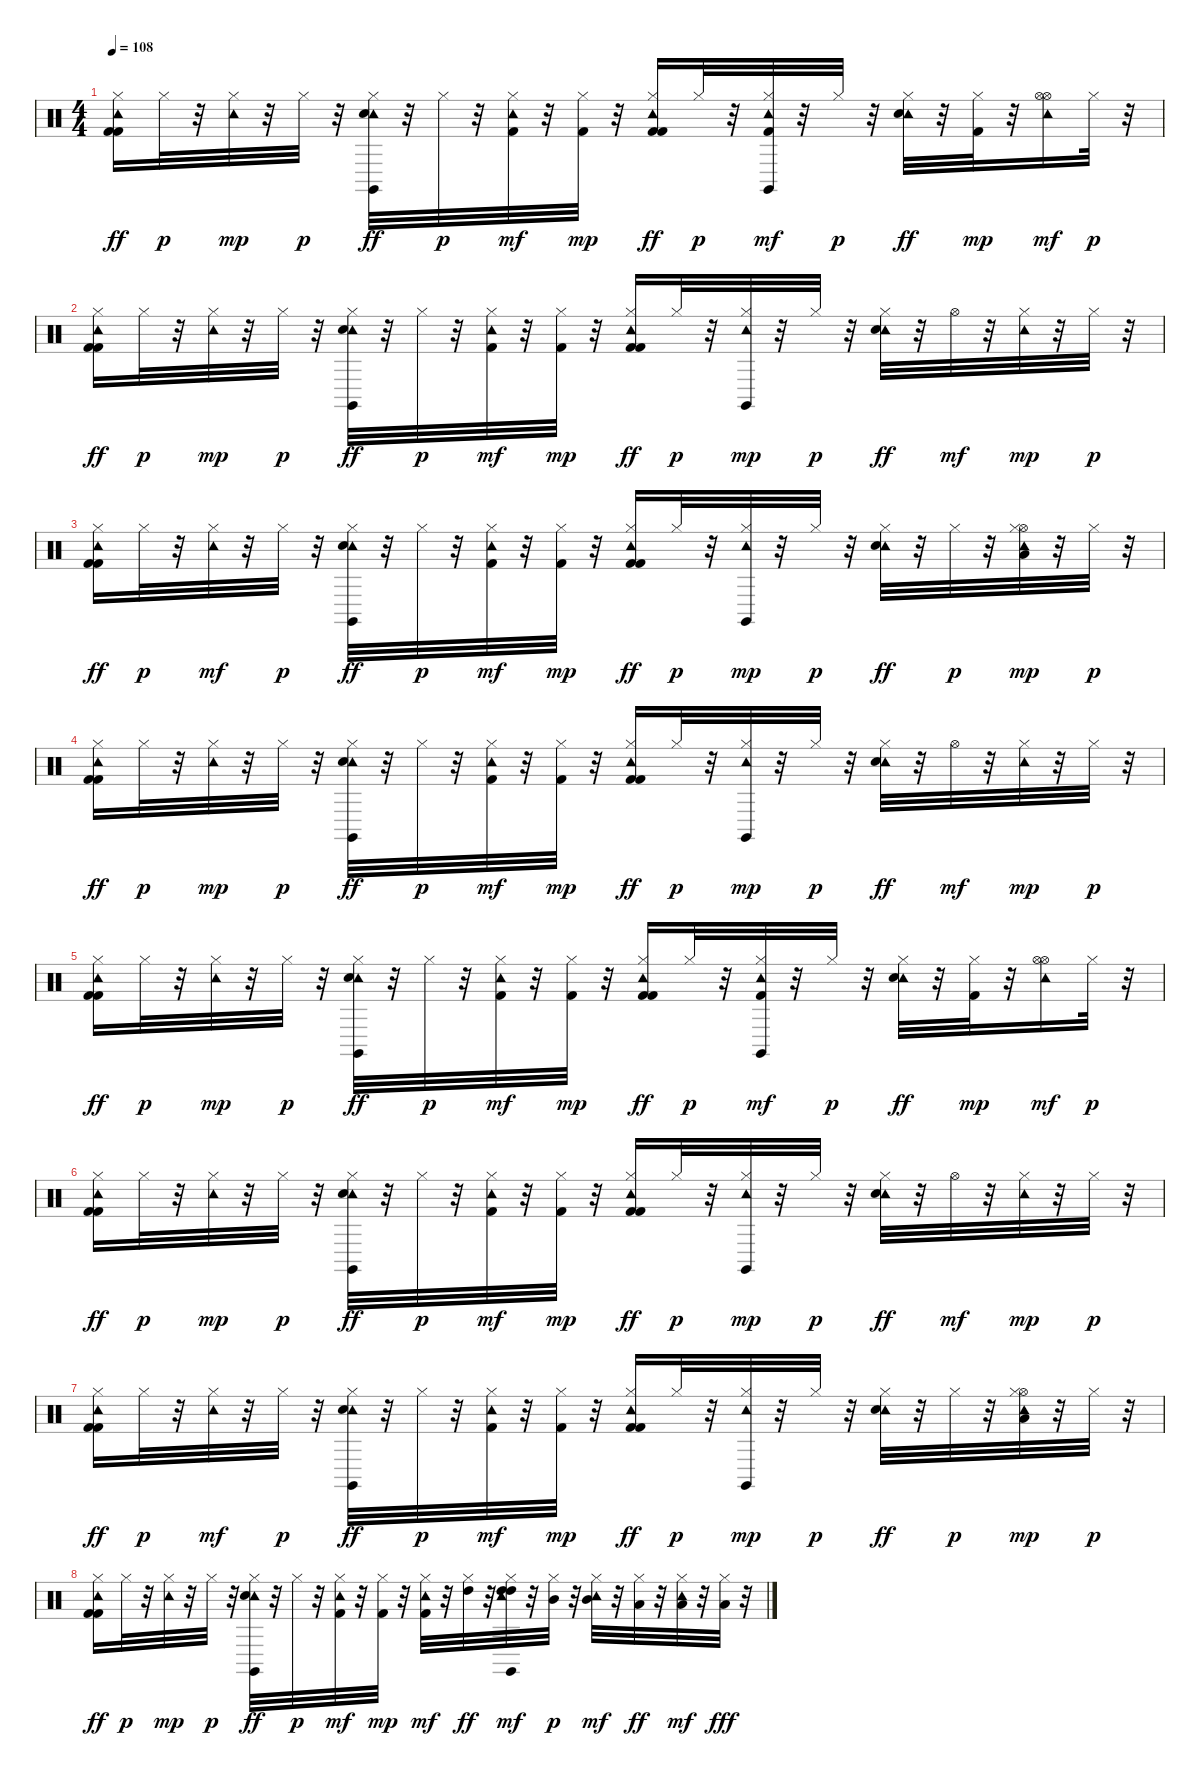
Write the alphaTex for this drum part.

\track "" {instrument percussion}
\staff {score}
\articulation defaults
\ts (4 4)
\tempo 108
\clef neutral
\ks c
("Kick (hit) 2" "Tambourine (hit)" "Hi-Hat (closed)" "Kick (hit) 2").16{dy ff} "Hi-Hat (closed)".32{dy p} r.32 ("Tambourine (hit)" "Hi-Hat (closed)").32{dy mp} r.32 "Hi-Hat (closed)".32{dy p} r.32 ("Tambourine (hit)" "Claves (hit)" "Hi-Hat (closed)" "Snare (hit) 2").32{dy ff} r.32 "Hi-Hat (closed)".32{dy p} r.32 ("Tambourine (hit)" "Kick (hit) 2" "Hi-Hat (closed)").32{dy mf} r.32 ("Hi-Hat (closed)" "Kick (hit) 2").32{dy mp} r.32 ("Kick (hit) 2" "Tambourine (hit)" "Hi-Hat (closed)" "Kick (hit) 2").16{dy ff} "Hi-Hat (closed)".32{dy p} r.32 ("Tambourine (hit)" "Claves (hit)" "Kick (hit) 2" "Hi-Hat (closed)").32{dy mf} r.32 "Hi-Hat (closed)".32{dy p} r.32 ("Tambourine (hit)" "Hi-Hat (closed)" "Snare (hit) 2").32{dy ff} r.32 ("Hi-Hat (closed)" "Kick (hit) 2").32{dy mp} r.32 ("Tambourine (hit)" "Hi-Hat (open)" "Hi-Hat (open)").16{dy mf} "Hi-Hat (closed)".32{dy p} r.32 |
("Tambourine (hit)" "Kick (hit) 2" "Hi-Hat (closed)" "Kick (hit) 2").16{dy ff} "Hi-Hat (closed)".32{dy p} r.32 ("Tambourine (hit)" "Hi-Hat (closed)").32{dy mp} r.32 "Hi-Hat (closed)".32{dy p} r.32 ("Tambourine (hit)" "Claves (hit)" "Hi-Hat (closed)" "Snare (hit) 2").32{dy ff} r.32 "Hi-Hat (closed)".32{dy p} r.32 ("Kick (hit) 2" "Tambourine (hit)" "Hi-Hat (closed)").32{dy mf} r.32 ("Hi-Hat (closed)" "Kick (hit) 2").32{dy mp} r.32 ("Tambourine (hit)" "Kick (hit) 2" "Hi-Hat (closed)" "Kick (hit) 2").16{dy ff} "Hi-Hat (closed)".32{dy p} r.32 ("Tambourine (hit)" "Claves (hit)" "Hi-Hat (closed)").32{dy mp} r.32 "Hi-Hat (closed)".32{dy p} r.32 ("Tambourine (hit)" "Hi-Hat (closed)" "Snare (hit) 2").32{dy ff} r.32 "Hi-Hat (open)".32{dy mf} r.32 ("Tambourine (hit)" "Hi-Hat (closed)").32{dy mp} r.32 "Hi-Hat (closed)".32{dy p} r.32 |
("Tambourine (hit)" "Kick (hit) 2" "Hi-Hat (closed)" "Kick (hit) 2").16{dy ff} "Hi-Hat (closed)".32{dy p} r.32 ("Tambourine (hit)" "Hi-Hat (closed)").32{dy mf} r.32 "Hi-Hat (closed)".32{dy p} r.32 ("Tambourine (hit)" "Claves (hit)" "Hi-Hat (closed)" "Snare (hit) 2").32{dy ff} r.32 "Hi-Hat (closed)".32{dy p} r.32 ("Kick (hit) 2" "Tambourine (hit)" "Hi-Hat (closed)").32{dy mf} r.32 ("Hi-Hat (closed)" "Kick (hit) 2").32{dy mp} r.32 ("Kick (hit) 2" "Tambourine (hit)" "Hi-Hat (closed)" "Kick (hit) 2").16{dy ff} "Hi-Hat (closed)".32{dy p} r.32 ("Tambourine (hit)" "Claves (hit)" "Hi-Hat (closed)").32{dy mp} r.32 "Hi-Hat (closed)".32{dy p} r.32 ("Tambourine (hit)" "Hi-Hat (closed)" "Snare (hit) 2").32{dy ff} r.32 "Hi-Hat (closed)".32{dy p} r.32 ("Tambourine (hit)" "Hi-Hat (open)" "Low Tom (hit)" "Hi-Hat (closed)").32{dy mp} r.32 "Hi-Hat (closed)".32{dy p} r.32 |
("Tambourine (hit)" "Kick (hit) 2" "Hi-Hat (closed)" "Kick (hit) 2").16{dy ff} "Hi-Hat (closed)".32{dy p} r.32 ("Hi-Hat (closed)" "Tambourine (hit)").32{dy mp} r.32 "Hi-Hat (closed)".32{dy p} r.32 ("Tambourine (hit)" "Claves (hit)" "Hi-Hat (closed)" "Snare (hit) 2").32{dy ff} r.32 "Hi-Hat (closed)".32{dy p} r.32 ("Tambourine (hit)" "Kick (hit) 2" "Hi-Hat (closed)").32{dy mf} r.32 ("Hi-Hat (closed)" "Kick (hit) 2").32{dy mp} r.32 ("Kick (hit) 2" "Tambourine (hit)" "Hi-Hat (closed)" "Kick (hit) 2").16{dy ff} "Hi-Hat (closed)".32{dy p} r.32 ("Tambourine (hit)" "Claves (hit)" "Hi-Hat (closed)").32{dy mp} r.32 "Hi-Hat (closed)".32{dy p} r.32 ("Tambourine (hit)" "Hi-Hat (closed)" "Snare (hit) 2").32{dy ff} r.32 "Hi-Hat (open)".32{dy mf} r.32 ("Tambourine (hit)" "Hi-Hat (closed)").32{dy mp} r.32 "Hi-Hat (closed)".32{dy p} r.32 |
("Kick (hit) 2" "Tambourine (hit)" "Hi-Hat (closed)" "Kick (hit) 2").16{dy ff} "Hi-Hat (closed)".32{dy p} r.32 ("Tambourine (hit)" "Hi-Hat (closed)").32{dy mp} r.32 "Hi-Hat (closed)".32{dy p} r.32 ("Tambourine (hit)" "Claves (hit)" "Hi-Hat (closed)" "Snare (hit) 2").32{dy ff} r.32 "Hi-Hat (closed)".32{dy p} r.32 ("Tambourine (hit)" "Kick (hit) 2" "Hi-Hat (closed)").32{dy mf} r.32 ("Hi-Hat (closed)" "Kick (hit) 2").32{dy mp} r.32 ("Tambourine (hit)" "Kick (hit) 2" "Hi-Hat (closed)" "Kick (hit) 2").16{dy ff} "Hi-Hat (closed)".32{dy p} r.32 ("Kick (hit) 2" "Tambourine (hit)" "Claves (hit)" "Hi-Hat (closed)").32{dy mf} r.32 "Hi-Hat (closed)".32{dy p} r.32 ("Tambourine (hit)" "Hi-Hat (closed)" "Snare (hit) 2").32{dy ff} r.32 ("Hi-Hat (closed)" "Kick (hit) 2").32{dy mp} r.32 ("Tambourine (hit)" "Hi-Hat (open)" "Hi-Hat (open)").16{dy mf} "Hi-Hat (closed)".32{dy p} r.32 |
("Kick (hit) 2" "Tambourine (hit)" "Hi-Hat (closed)" "Kick (hit) 2").16{dy ff} "Hi-Hat (closed)".32{dy p} r.32 ("Hi-Hat (closed)" "Tambourine (hit)").32{dy mp} r.32 "Hi-Hat (closed)".32{dy p} r.32 ("Tambourine (hit)" "Claves (hit)" "Hi-Hat (closed)" "Snare (hit) 2").32{dy ff} r.32 "Hi-Hat (closed)".32{dy p} r.32 ("Kick (hit) 2" "Tambourine (hit)" "Hi-Hat (closed)").32{dy mf} r.32 ("Hi-Hat (closed)" "Kick (hit) 2").32{dy mp} r.32 ("Kick (hit) 2" "Tambourine (hit)" "Hi-Hat (closed)" "Kick (hit) 2").16{dy ff} "Hi-Hat (closed)".32{dy p} r.32 ("Tambourine (hit)" "Claves (hit)" "Hi-Hat (closed)").32{dy mp} r.32 "Hi-Hat (closed)".32{dy p} r.32 ("Tambourine (hit)" "Hi-Hat (closed)" "Snare (hit) 2").32{dy ff} r.32 "Hi-Hat (open)".32{dy mf} r.32 ("Tambourine (hit)" "Hi-Hat (closed)").32{dy mp} r.32 "Hi-Hat (closed)".32{dy p} r.32 |
("Tambourine (hit)" "Kick (hit) 2" "Hi-Hat (closed)" "Kick (hit) 2").16{dy ff} "Hi-Hat (closed)".32{dy p} r.32 ("Tambourine (hit)" "Hi-Hat (closed)").32{dy mf} r.32 "Hi-Hat (closed)".32{dy p} r.32 ("Tambourine (hit)" "Claves (hit)" "Hi-Hat (closed)" "Snare (hit) 2").32{dy ff} r.32 "Hi-Hat (closed)".32{dy p} r.32 ("Tambourine (hit)" "Kick (hit) 2" "Hi-Hat (closed)").32{dy mf} r.32 ("Hi-Hat (closed)" "Kick (hit) 2").32{dy mp} r.32 ("Tambourine (hit)" "Kick (hit) 2" "Hi-Hat (closed)" "Kick (hit) 2").16{dy ff} "Hi-Hat (closed)".32{dy p} r.32 ("Tambourine (hit)" "Claves (hit)" "Hi-Hat (closed)").32{dy mp} r.32 "Hi-Hat (closed)".32{dy p} r.32 ("Tambourine (hit)" "Hi-Hat (closed)" "Snare (hit) 2").32{dy ff} r.32 "Hi-Hat (closed)".32{dy p} r.32 ("Tambourine (hit)" "Hi-Hat (open)" "Low Tom (hit)" "Hi-Hat (closed)").32{dy mp} r.32 "Hi-Hat (closed)".32{dy p} r.32 |
("Kick (hit) 2" "Tambourine (hit)" "Hi-Hat (closed)" "Kick (hit) 2").16{dy ff} "Hi-Hat (closed)".32{dy p} r.32 ("Hi-Hat (closed)" "Tambourine (hit)").32{dy mp} r.32 "Hi-Hat (closed)".32{dy p} r.32 ("Tambourine (hit)" "Claves (hit)" "Hi-Hat (closed)" "Snare (hit) 2").32{dy ff} r.32 "Hi-Hat (closed)".32{dy p} r.32 ("Kick (hit) 2" "Tambourine (hit)" "Hi-Hat (closed)").32{dy mf} r.32 ("Hi-Hat (closed)" "Kick (hit) 2").32{dy mp} r.32 ("Tambourine (hit)" "Kick (hit) 2" "Hi-Hat (closed)").32{dy mf} r.32 ("Hi-Hat (closed)" "High Tom (hit)").32{dy ff} r.32 ("Tambourine (hit)" "Claves (hit)" "Hi-Hat (closed)" "High Tom (hit)" "High Tom (hit)").32{dy mf} r.32 ("Hi-Hat (closed)" "Mid Tom (hit)").32{dy p} r.32 ("Tambourine (hit)" "Hi-Hat (closed)" "Mid Tom (hit)").32{dy mf} r.32 ("Hi-Hat (closed)" "Low Tom (hit)").32{dy ff} r.32 ("Tambourine (hit)" "Hi-Hat (closed)" "Low Tom (hit)").32{dy mf} r.32 ("Hi-Hat (closed)" "Low Tom (hit)").32{dy fff} r.32
